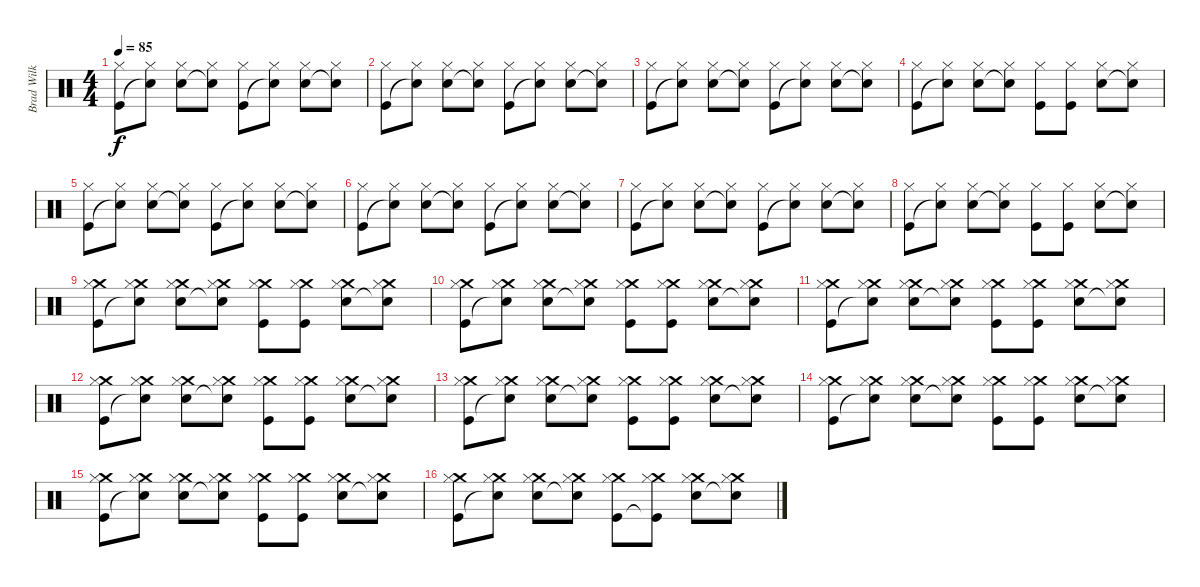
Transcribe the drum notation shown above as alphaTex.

\track ("Brad Wilk" "Brad Wilk") {instrument percussion}
\staff {score}
\articulation defaults
\ts (4 4)
\tempo 85
\clef neutral
\ks c
("Hi-Hat (closed)" "Kick (hit)").8{dy f} ("Hi-Hat (closed)" "Snare (hit)"{t}).8 ("Hi-Hat (closed)" "Snare (hit) 2").8 ("Hi-Hat (closed)" "Snare (hit)"{t}).8 ("Hi-Hat (closed)" "Kick (hit)").8 ("Hi-Hat (closed)" "Snare (hit)"{t}).8 ("Hi-Hat (closed)" "Snare (hit) 2").8 ("Hi-Hat (closed)" "Snare (hit)"{t}).8 |
("Hi-Hat (closed)" "Kick (hit)").8 ("Hi-Hat (closed)" "Snare (hit)"{t}).8 ("Hi-Hat (closed)" "Snare (hit) 2").8 ("Hi-Hat (closed)" "Snare (hit)"{t}).8 ("Hi-Hat (closed)" "Kick (hit)").8 ("Hi-Hat (closed)" "Snare (hit)"{t}).8 ("Hi-Hat (closed)" "Snare (hit) 2").8 ("Hi-Hat (closed)" "Snare (hit)"{t}).8 |
("Hi-Hat (closed)" "Kick (hit)").8 ("Hi-Hat (closed)" "Snare (hit)"{t}).8 ("Hi-Hat (closed)" "Snare (hit) 2").8 ("Hi-Hat (closed)" "Snare (hit)"{t}).8 ("Hi-Hat (closed)" "Kick (hit)").8 ("Hi-Hat (closed)" "Snare (hit)"{t}).8 ("Hi-Hat (closed)" "Snare (hit) 2").8 ("Hi-Hat (closed)" "Snare (hit)"{t}).8 |
("Hi-Hat (closed)" "Kick (hit)").8 ("Hi-Hat (closed)" "Snare (hit)"{t}).8 ("Hi-Hat (closed)" "Snare (hit) 2").8 ("Hi-Hat (closed)" "Snare (hit)"{t}).8 ("Hi-Hat (closed)" "Kick (hit)").8 ("Hi-Hat (closed)" "Kick (hit)").8 ("Hi-Hat (closed)" "Snare (hit) 2").8 ("Hi-Hat (closed)" "Snare (hit)"{t}).8 |
("Hi-Hat (closed)" "Kick (hit)").8 ("Hi-Hat (closed)" "Snare (hit)"{t}).8 ("Hi-Hat (closed)" "Snare (hit) 2").8 ("Hi-Hat (closed)" "Snare (hit)"{t}).8 ("Hi-Hat (closed)" "Kick (hit)").8 ("Hi-Hat (closed)" "Snare (hit)"{t}).8 ("Hi-Hat (closed)" "Snare (hit) 2").8 ("Hi-Hat (closed)" "Snare (hit)"{t}).8 |
("Hi-Hat (closed)" "Kick (hit)").8 ("Hi-Hat (closed)" "Snare (hit)"{t}).8 ("Hi-Hat (closed)" "Snare (hit) 2").8 ("Hi-Hat (closed)" "Snare (hit)"{t}).8 ("Hi-Hat (closed)" "Kick (hit)").8 ("Hi-Hat (closed)" "Snare (hit)"{t}).8 ("Hi-Hat (closed)" "Snare (hit) 2").8 ("Hi-Hat (closed)" "Snare (hit)"{t}).8 |
("Hi-Hat (closed)" "Kick (hit)").8{volume 14} ("Hi-Hat (closed)" "Snare (hit)"{t}).8 ("Hi-Hat (closed)" "Snare (hit) 2").8 ("Hi-Hat (closed)" "Snare (hit)"{t}).8 ("Hi-Hat (closed)" "Kick (hit)").8 ("Hi-Hat (closed)" "Snare (hit)"{t}).8 ("Hi-Hat (closed)" "Snare (hit) 2").8 ("Hi-Hat (closed)" "Snare (hit)"{t}).8 |
("Hi-Hat (closed)" "Kick (hit)").8 ("Hi-Hat (closed)" "Snare (hit)"{t}).8 ("Hi-Hat (closed)" "Snare (hit) 2").8 ("Hi-Hat (closed)" "Snare (hit)"{t}).8 ("Hi-Hat (closed)" "Kick (hit)").8 ("Hi-Hat (closed)" "Kick (hit)").8 ("Hi-Hat (closed)" "Snare (hit) 2").8 ("Hi-Hat (closed)" "Snare (hit)"{t}).8 |
("Crash medium (hit)" "Hi-Hat (closed)" "Kick (hit)").8 ("Crash medium (hit)" "Hi-Hat (closed)" "Snare (hit)"{t}).8 ("Crash medium (hit)" "Hi-Hat (closed)" "Snare (hit) 2").8 ("Crash medium (hit)" "Hi-Hat (closed)" "Snare (hit)"{t}).8 ("Crash medium (hit)" "Hi-Hat (closed)" "Kick (hit)").8 ("Crash medium (hit)" "Hi-Hat (closed)" "Kick (hit)").8 ("Crash medium (hit)" "Hi-Hat (closed)" "Snare (hit) 2").8 ("Crash medium (hit)" "Hi-Hat (closed)" "Snare (hit)"{t}).8 |
("Crash medium (hit)" "Hi-Hat (closed)" "Kick (hit)").8 ("Crash medium (hit)" "Hi-Hat (closed)" "Snare (hit)"{t}).8 ("Crash medium (hit)" "Hi-Hat (closed)" "Snare (hit) 2").8 ("Crash medium (hit)" "Hi-Hat (closed)" "Snare (hit)"{t}).8 ("Crash medium (hit)" "Hi-Hat (closed)" "Kick (hit)").8 ("Crash medium (hit)" "Hi-Hat (closed)" "Kick (hit)").8 ("Crash medium (hit)" "Hi-Hat (closed)" "Snare (hit) 2").8 ("Crash medium (hit)" "Hi-Hat (closed)" "Snare (hit)"{t}).8 |
("Crash medium (hit)" "Hi-Hat (closed)" "Kick (hit)").8 ("Crash medium (hit)" "Hi-Hat (closed)" "Snare (hit)"{t}).8 ("Crash medium (hit)" "Hi-Hat (closed)" "Snare (hit) 2").8 ("Crash medium (hit)" "Hi-Hat (closed)" "Snare (hit)"{t}).8 ("Crash medium (hit)" "Hi-Hat (closed)" "Kick (hit)").8 ("Crash medium (hit)" "Hi-Hat (closed)" "Kick (hit)").8 ("Crash medium (hit)" "Hi-Hat (closed)" "Snare (hit) 2").8 ("Crash medium (hit)" "Hi-Hat (closed)" "Snare (hit)"{t}).8 |
("Crash medium (hit)" "Hi-Hat (closed)" "Kick (hit)").8 ("Crash medium (hit)" "Hi-Hat (closed)" "Snare (hit)"{t}).8 ("Crash medium (hit)" "Hi-Hat (closed)" "Snare (hit) 2").8 ("Crash medium (hit)" "Hi-Hat (closed)" "Snare (hit)"{t}).8 ("Crash medium (hit)" "Hi-Hat (closed)" "Kick (hit)").8 ("Crash medium (hit)" "Hi-Hat (closed)" "Kick (hit)").8 ("Crash medium (hit)" "Hi-Hat (closed)" "Snare (hit) 2").8 ("Crash medium (hit)" "Hi-Hat (closed)" "Snare (hit)"{t}).8 |
("Crash medium (hit)" "Hi-Hat (closed)" "Kick (hit)").8 ("Crash medium (hit)" "Hi-Hat (closed)" "Snare (hit)"{t}).8 ("Crash medium (hit)" "Hi-Hat (closed)" "Snare (hit) 2").8 ("Crash medium (hit)" "Hi-Hat (closed)" "Snare (hit)"{t}).8 ("Crash medium (hit)" "Hi-Hat (closed)" "Kick (hit)").8 ("Crash medium (hit)" "Hi-Hat (closed)" "Kick (hit)").8 ("Crash medium (hit)" "Hi-Hat (closed)" "Snare (hit) 2").8 ("Crash medium (hit)" "Hi-Hat (closed)" "Snare (hit)"{t}).8 |
("Crash medium (hit)" "Hi-Hat (closed)" "Kick (hit)").8 ("Crash medium (hit)" "Hi-Hat (closed)" "Snare (hit)"{t}).8 ("Crash medium (hit)" "Hi-Hat (closed)" "Snare (hit) 2").8 ("Crash medium (hit)" "Hi-Hat (closed)" "Snare (hit)"{t}).8 ("Crash medium (hit)" "Hi-Hat (closed)" "Kick (hit)").8 ("Crash medium (hit)" "Hi-Hat (closed)" "Kick (hit)").8 ("Crash medium (hit)" "Hi-Hat (closed)" "Snare (hit) 2").8 ("Crash medium (hit)" "Hi-Hat (closed)" "Snare (hit)"{t}).8 |
("Crash medium (hit)" "Hi-Hat (closed)" "Kick (hit)").8 ("Crash medium (hit)" "Hi-Hat (closed)" "Snare (hit)"{t}).8 ("Crash medium (hit)" "Hi-Hat (closed)" "Snare (hit) 2").8 ("Crash medium (hit)" "Hi-Hat (closed)" "Snare (hit)"{t}).8 ("Crash medium (hit)" "Hi-Hat (closed)" "Kick (hit)").8 ("Crash medium (hit)" "Hi-Hat (closed)" "Kick (hit)").8 ("Crash medium (hit)" "Hi-Hat (closed)" "Snare (hit) 2").8 ("Crash medium (hit)" "Hi-Hat (closed)" "Snare (hit)"{t}).8 |
("Crash medium (hit)" "Hi-Hat (closed)" "Kick (hit)").8 ("Crash medium (hit)" "Hi-Hat (closed)" "Snare (hit)"{t}).8 ("Crash medium (hit)" "Hi-Hat (closed)" "Snare (hit) 2").8 ("Crash medium (hit)" "Hi-Hat (closed)" "Snare (hit)"{t}).8 ("Crash medium (hit)" "Hi-Hat (closed)" "Kick (hit)").8 ("Crash medium (hit)" "Hi-Hat (closed)" "Kick (hit)"{t}).8 ("Crash medium (hit)" "Hi-Hat (closed)" "Snare (hit) 2").8 ("Crash medium (hit)" "Hi-Hat (closed)" "Snare (hit)"{t}).8
